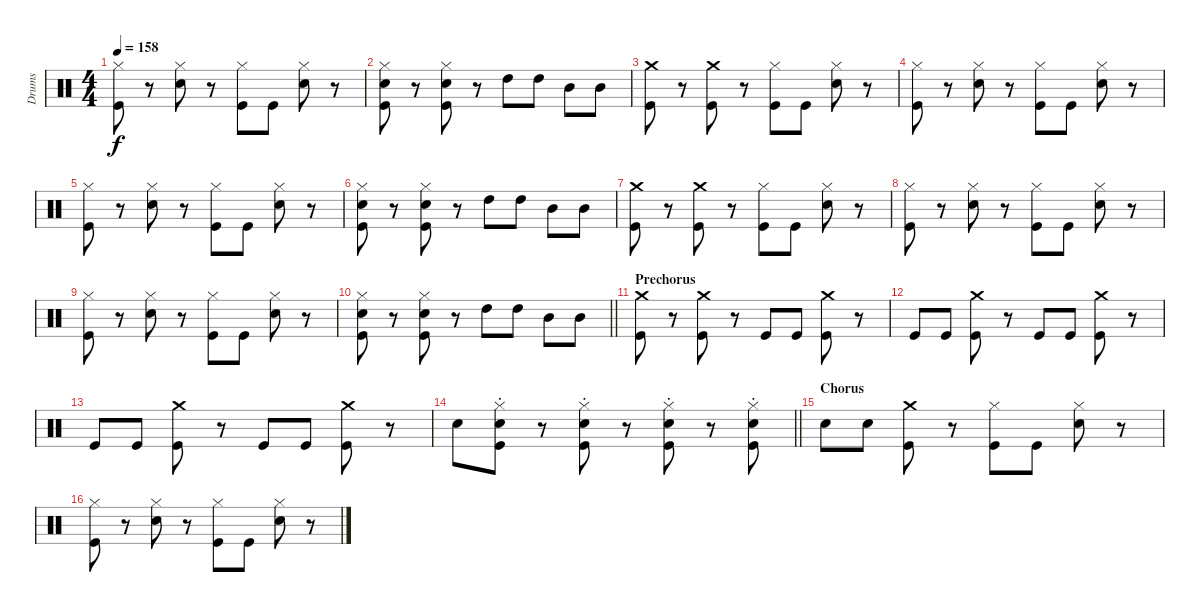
\track ("Drums" "Drums") {instrument percussion}
\staff {score}
\articulation defaults
\ts (4 4)
\tempo 158
\clef neutral
\ks c
("Hi-Hat (closed)" "Kick (hit)").8{dy f} r.8 ("Hi-Hat (closed)" "Snare (hit) 2").8 r.8 ("Hi-Hat (closed)" "Kick (hit)").8 "Kick (hit)".8 ("Hi-Hat (closed)" "Snare (hit) 2").8 r.8 |
("Hi-Hat (closed)" "Snare (hit) 2" "Kick (hit)").8 r.8 ("Hi-Hat (closed)" "Snare (hit) 2" "Kick (hit)").8 r.8 "High Tom (hit)".8 "High Tom (hit)".8 "Mid Tom (hit)".8 "Mid Tom (hit)".8 |
("Crash medium (hit)" "Kick (hit)").8 r.8 ("Crash medium (hit)" "Kick (hit)").8 r.8 ("Hi-Hat (closed)" "Kick (hit)").8 "Kick (hit)".8 ("Hi-Hat (closed)" "Snare (hit) 2").8 r.8 |
("Hi-Hat (closed)" "Kick (hit)").8 r.8 ("Hi-Hat (closed)" "Snare (hit) 2").8 r.8 ("Hi-Hat (closed)" "Kick (hit)").8 "Kick (hit)".8 ("Hi-Hat (closed)" "Snare (hit) 2").8 r.8 |
("Hi-Hat (closed)" "Kick (hit)").8 r.8 ("Hi-Hat (closed)" "Snare (hit) 2").8 r.8 ("Hi-Hat (closed)" "Kick (hit)").8 "Kick (hit)".8 ("Hi-Hat (closed)" "Snare (hit) 2").8 r.8 |
("Hi-Hat (closed)" "Snare (hit) 2" "Kick (hit)").8 r.8 ("Hi-Hat (closed)" "Snare (hit) 2" "Kick (hit)").8 r.8 "High Tom (hit)".8 "High Tom (hit)".8 "Mid Tom (hit)".8 "Mid Tom (hit)".8 |
("Crash medium (hit)" "Kick (hit)").8 r.8 ("Crash medium (hit)" "Kick (hit)").8 r.8 ("Hi-Hat (closed)" "Kick (hit)").8 "Kick (hit)".8 ("Hi-Hat (closed)" "Snare (hit) 2").8 r.8 |
("Hi-Hat (closed)" "Kick (hit)").8 r.8 ("Hi-Hat (closed)" "Snare (hit) 2").8 r.8 ("Hi-Hat (closed)" "Kick (hit)").8 "Kick (hit)".8 ("Hi-Hat (closed)" "Snare (hit) 2").8 r.8 |
("Hi-Hat (closed)" "Kick (hit)").8 r.8 ("Hi-Hat (closed)" "Snare (hit) 2").8 r.8 ("Hi-Hat (closed)" "Kick (hit)").8 "Kick (hit)".8 ("Hi-Hat (closed)" "Snare (hit) 2").8 r.8 |
\barLineRight lightlight
("Hi-Hat (closed)" "Snare (hit) 2" "Kick (hit)").8 r.8 ("Hi-Hat (closed)" "Snare (hit) 2" "Kick (hit)").8 r.8 "High Tom (hit)".8 "High Tom (hit)".8 "Mid Tom (hit)".8 "Mid Tom (hit)".8 |
\section ("" "Prechorus")
("Crash medium (hit)" "Kick (hit)").8 r.8 ("Crash medium (hit)" "Kick (hit)").8 r.8 "Kick (hit)".8 "Kick (hit)".8 ("Crash medium (hit)" "Kick (hit)").8 r.8 |
"Kick (hit)".8 "Kick (hit)".8 ("Crash medium (hit)" "Kick (hit)").8 r.8 "Kick (hit)".8 "Kick (hit)".8 ("Crash medium (hit)" "Kick (hit)").8 r.8 |
"Kick (hit)".8 "Kick (hit)".8 ("Crash medium (hit)" "Kick (hit)").8 r.8 "Kick (hit)".8 "Kick (hit)".8 ("Crash medium (hit)" "Kick (hit)").8 r.8 |
\barLineRight lightlight "Snare (hit) 2".8
("Hi-Hat (closed)"{st} "Snare (hit) 2"{st} "Kick (hit)"{st}).8 r.8 ("Hi-Hat (closed)"{st} "Snare (hit) 2"{st} "Kick (hit)"{st}).8 r.8 ("Hi-Hat (closed)"{st} "Snare (hit) 2"{st} "Kick (hit)"{st}).8 r.8 ("Hi-Hat (closed)"{st} "Snare (hit) 2"{st} "Kick (hit)"{st}).8 |
\section ("" "Chorus")
"Snare (hit) 2".8 "Snare (hit) 2".8 ("Crash medium (hit)" "Kick (hit)").8 r.8 ("Hi-Hat (closed)" "Kick (hit)").8 "Kick (hit)".8 ("Hi-Hat (closed)" "Snare (hit) 2").8 r.8 |
("Hi-Hat (closed)" "Kick (hit)").8 r.8 ("Hi-Hat (closed)" "Snare (hit) 2").8 r.8 ("Hi-Hat (closed)" "Kick (hit)").8 "Kick (hit)".8 ("Hi-Hat (closed)" "Snare (hit) 2").8 r.8
